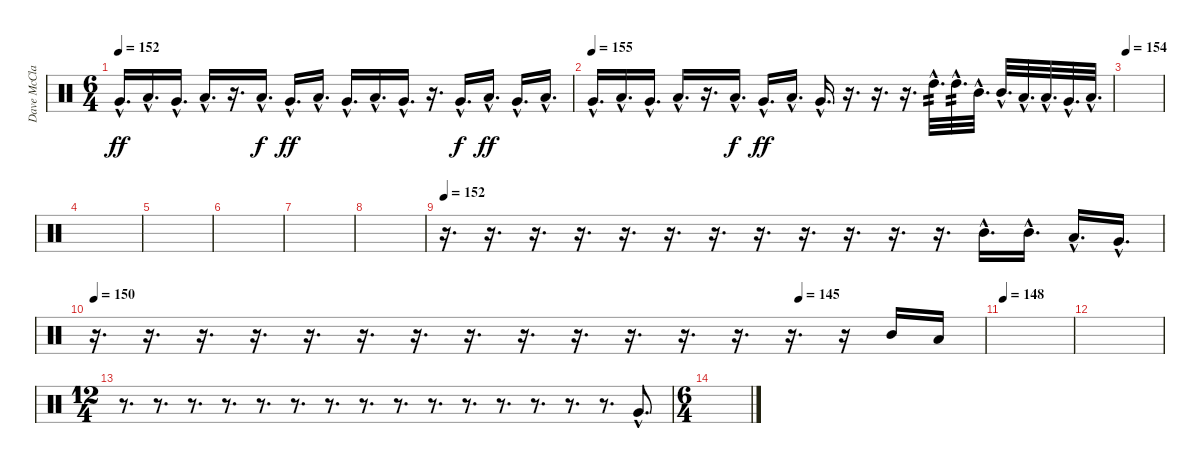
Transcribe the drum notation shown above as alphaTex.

\track ("Dave McClain" "Dave McCla") {instrument percussion}
\staff {score}
\articulation defaults
\ts (6 4)
\tempo 152
\clef neutral
\ks c "Very Low Tom (hit)"{hac}.16{d dy ff} "Low Tom (hit)"{hac}.16{d} "Very Low Tom (hit)"{hac}.16{d} "Low Tom (hit)"{hac}.16{d}
r.16{d} "Low Tom (hit)"{hac}.16{d dy f} "Very Low Tom (hit)"{hac}.16{d dy ff} "Low Tom (hit)"{hac}.16{d} "Very Low Tom (hit)"{hac}.16{d} "Low Tom (hit)"{hac}.16{d} "Very Low Tom (hit)"{hac}.16{d} r.16{d} "Very Low Tom (hit)"{hac}.16{d dy f} "Low Tom (hit)"{hac}.16{d dy ff} "Very Low Tom (hit)"{hac}.16{d} "Low Tom (hit)"{hac}.16{d} |
\tempo (155)
"Very Low Tom (hit)"{hac}.16{d} "Low Tom (hit)"{hac}.16{d} "Very Low Tom (hit)"{hac}.16{d} "Low Tom (hit)"{hac}.16{d} r.16{d} "Low Tom (hit)"{hac}.16{d dy f} "Very Low Tom (hit)"{hac}.16{d dy ff} "Low Tom (hit)"{hac}.16{d} "Very Low Tom (hit)"{hac}.16{d} r.16{d} r.16{d} r.16{d} "High Tom (hit)"{hac}.32{d tp 2} "High Tom (hit)"{hac}.32{d tp 2} "Mid Tom (hit)"{hac}.32{d} "Mid Tom (hit)"{hac}.32{d} "Low Tom (hit)"{hac}.32{d} "Low Tom (hit)"{hac}.32{d} "Very Low Tom (hit)"{hac}.32{d} "Low Floor Tom (hit)"{hac}.32{d} |
\tempo 154
|
|
|
|
|
|
\tempo 152
r.16{d} r.16{d} r.16{d} r.16{d} r.16{d} r.16{d} r.16{d} r.16{d} r.16{d} r.16{d} r.16{d} r.16{d} "Mid Tom (hit)"{hac}.16{d} "Mid Tom (hit)"{hac}.16{d} "Low Tom (hit)"{hac}.16{d} "Very Low Tom (hit)"{hac}.16{d} |
\tempo 150
\tempo (145 0.7916666666666666)
r.16{d} r.16{d} r.16{d} r.16{d} r.16{d} r.16{d} r.16{d} r.16{d} r.16{d} r.16{d} r.16{d} r.16{d} r.16{d} r.16{d} r.16 "Mid Tom (hit)".16 "Low Tom (hit)".16 |
\tempo 148
|
|
\ts (12 4)
r.8{d} r.8{d} r.8{d} r.8{d} r.8{d} r.8{d} r.8{d} r.8{d} r.8{d} r.8{d} r.8{d} r.8{d} r.8{d} r.8{d} r.8{d} "Very Low Tom (hit)"{hac}.8{d} |
\ts (6 4)
